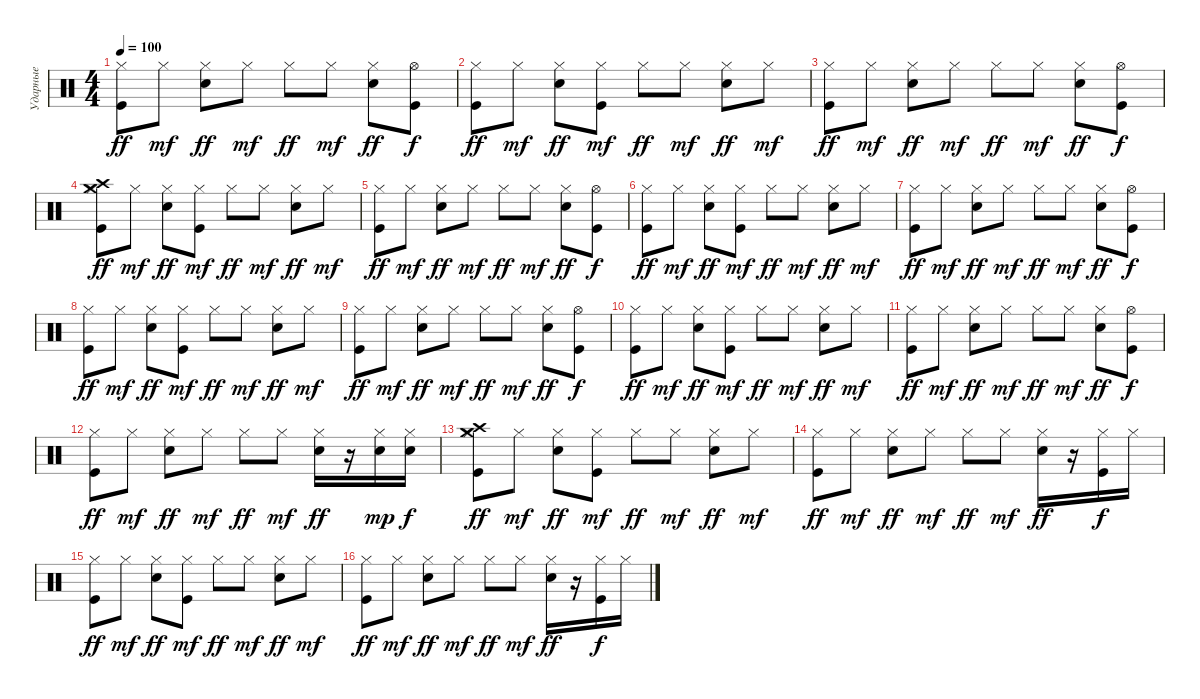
\track ("Ударные" "Ударные") {instrument percussion}
\staff {score}
\articulation defaults
\ts (4 4)
\tempo 100
\clef neutral
\ks c
("Kick (hit)" "Hi-Hat (closed)").8{dy ff} "Hi-Hat (closed)".8{dy mf} ("Electric Snare (hit)" "Hi-Hat (closed)").8{dy ff} "Hi-Hat (closed)".8{dy mf} "Hi-Hat (closed)".8{dy ff} "Hi-Hat (closed)".8{dy mf} ("Electric Snare (hit)" "Hi-Hat (closed)").8{dy ff} ("Kick (hit)" "Hi-Hat (open)").8{dy f} |
("Kick (hit)" "Hi-Hat (closed)").8{dy ff} "Hi-Hat (closed)".8{dy mf} ("Electric Snare (hit)" "Hi-Hat (closed)").8{dy ff} ("Kick (hit)" "Hi-Hat (closed)").8{dy mf} "Hi-Hat (closed)".8{dy ff} "Hi-Hat (closed)".8{dy mf} ("Electric Snare (hit)" "Hi-Hat (closed)").8{dy ff} "Hi-Hat (closed)".8{dy mf} |
("Kick (hit)" "Hi-Hat (closed)").8{dy ff} "Hi-Hat (closed)".8{dy mf} ("Electric Snare (hit)" "Hi-Hat (closed)").8{dy ff} "Hi-Hat (closed)".8{dy mf} "Hi-Hat (closed)".8{dy ff} "Hi-Hat (closed)".8{dy mf} ("Electric Snare (hit)" "Hi-Hat (closed)").8{dy ff} ("Kick (hit)" "Hi-Hat (open)").8{dy f} |
("Kick (hit)" "Hi-Hat (closed)" "Crash high (hit)" "Crash medium (hit)").8{dy ff} "Hi-Hat (closed)".8{dy mf} ("Electric Snare (hit)" "Hi-Hat (closed)").8{dy ff} ("Kick (hit)" "Hi-Hat (closed)").8{dy mf} "Hi-Hat (closed)".8{dy ff} "Hi-Hat (closed)".8{dy mf} ("Electric Snare (hit)" "Hi-Hat (closed)").8{dy ff} "Hi-Hat (closed)".8{dy mf} |
("Kick (hit)" "Hi-Hat (closed)").8{dy ff} "Hi-Hat (closed)".8{dy mf} ("Electric Snare (hit)" "Hi-Hat (closed)").8{dy ff} "Hi-Hat (closed)".8{dy mf} "Hi-Hat (closed)".8{dy ff} "Hi-Hat (closed)".8{dy mf} ("Electric Snare (hit)" "Hi-Hat (closed)").8{dy ff} ("Kick (hit)" "Hi-Hat (open)").8{dy f} |
("Kick (hit)" "Hi-Hat (closed)").8{dy ff} "Hi-Hat (closed)".8{dy mf} ("Electric Snare (hit)" "Hi-Hat (closed)").8{dy ff} ("Kick (hit)" "Hi-Hat (closed)").8{dy mf} "Hi-Hat (closed)".8{dy ff} "Hi-Hat (closed)".8{dy mf} ("Electric Snare (hit)" "Hi-Hat (closed)").8{dy ff} "Hi-Hat (closed)".8{dy mf} |
("Kick (hit)" "Hi-Hat (closed)").8{dy ff} "Hi-Hat (closed)".8{dy mf} ("Electric Snare (hit)" "Hi-Hat (closed)").8{dy ff} "Hi-Hat (closed)".8{dy mf} "Hi-Hat (closed)".8{dy ff} "Hi-Hat (closed)".8{dy mf} ("Electric Snare (hit)" "Hi-Hat (closed)").8{dy ff} ("Kick (hit)" "Hi-Hat (open)").8{dy f} |
("Kick (hit)" "Hi-Hat (closed)").8{dy ff} "Hi-Hat (closed)".8{dy mf} ("Electric Snare (hit)" "Hi-Hat (closed)").8{dy ff} ("Kick (hit)" "Hi-Hat (closed)").8{dy mf} "Hi-Hat (closed)".8{dy ff} "Hi-Hat (closed)".8{dy mf} ("Electric Snare (hit)" "Hi-Hat (closed)").8{dy ff} "Hi-Hat (closed)".8{dy mf} |
("Kick (hit)" "Hi-Hat (closed)").8{dy ff} "Hi-Hat (closed)".8{dy mf} ("Electric Snare (hit)" "Hi-Hat (closed)").8{dy ff} "Hi-Hat (closed)".8{dy mf} "Hi-Hat (closed)".8{dy ff} "Hi-Hat (closed)".8{dy mf} ("Electric Snare (hit)" "Hi-Hat (closed)").8{dy ff} ("Kick (hit)" "Hi-Hat (open)").8{dy f} |
("Kick (hit)" "Hi-Hat (closed)").8{dy ff} "Hi-Hat (closed)".8{dy mf} ("Electric Snare (hit)" "Hi-Hat (closed)").8{dy ff} ("Kick (hit)" "Hi-Hat (closed)").8{dy mf} "Hi-Hat (closed)".8{dy ff} "Hi-Hat (closed)".8{dy mf} ("Electric Snare (hit)" "Hi-Hat (closed)").8{dy ff} "Hi-Hat (closed)".8{dy mf} |
("Kick (hit)" "Hi-Hat (closed)").8{dy ff} "Hi-Hat (closed)".8{dy mf} ("Electric Snare (hit)" "Hi-Hat (closed)").8{dy ff} "Hi-Hat (closed)".8{dy mf} "Hi-Hat (closed)".8{dy ff} "Hi-Hat (closed)".8{dy mf} ("Electric Snare (hit)" "Hi-Hat (closed)").8{dy ff} ("Kick (hit)" "Hi-Hat (open)").8{dy f} |
("Kick (hit)" "Hi-Hat (closed)").8{dy ff} "Hi-Hat (closed)".8{dy mf} ("Electric Snare (hit)" "Hi-Hat (closed)").8{dy ff} "Hi-Hat (closed)".8{dy mf} "Hi-Hat (closed)".8{dy ff} "Hi-Hat (closed)".8{dy mf} ("Electric Snare (hit)" "Hi-Hat (closed)").16{dy ff} r.16 ("Electric Snare (hit)" "Hi-Hat (closed)").16{dy mp} ("Electric Snare (hit)" "Hi-Hat (closed)").16{dy f} |
("Kick (hit)" "Hi-Hat (closed)" "Crash high (hit)" "Crash medium (hit)").8{dy ff} "Hi-Hat (closed)".8{dy mf} ("Electric Snare (hit)" "Hi-Hat (closed)").8{dy ff} ("Kick (hit)" "Hi-Hat (closed)").8{dy mf} "Hi-Hat (closed)".8{dy ff} "Hi-Hat (closed)".8{dy mf} ("Electric Snare (hit)" "Hi-Hat (closed)").8{dy ff} "Hi-Hat (closed)".8{dy mf} |
("Kick (hit)" "Hi-Hat (closed)").8{dy ff} "Hi-Hat (closed)".8{dy mf} ("Electric Snare (hit)" "Hi-Hat (closed)").8{dy ff} "Hi-Hat (closed)".8{dy mf} "Hi-Hat (closed)".8{dy ff} "Hi-Hat (closed)".8{dy mf} ("Electric Snare (hit)" "Hi-Hat (closed)").16{dy ff} r.16 ("Kick (hit)" "Hi-Hat (closed)").16{dy f} "Hi-Hat (closed)".16 |
("Kick (hit)" "Hi-Hat (closed)").8{dy ff} "Hi-Hat (closed)".8{dy mf} ("Electric Snare (hit)" "Hi-Hat (closed)").8{dy ff} ("Kick (hit)" "Hi-Hat (closed)").8{dy mf} "Hi-Hat (closed)".8{dy ff} "Hi-Hat (closed)".8{dy mf} ("Electric Snare (hit)" "Hi-Hat (closed)").8{dy ff} "Hi-Hat (closed)".8{dy mf} |
("Kick (hit)" "Hi-Hat (closed)").8{dy ff} "Hi-Hat (closed)".8{dy mf} ("Electric Snare (hit)" "Hi-Hat (closed)").8{dy ff} "Hi-Hat (closed)".8{dy mf} "Hi-Hat (closed)".8{dy ff} "Hi-Hat (closed)".8{dy mf} ("Electric Snare (hit)" "Hi-Hat (closed)").16{dy ff} r.16 ("Kick (hit)" "Hi-Hat (closed)").16{dy f} "Hi-Hat (closed)".16
